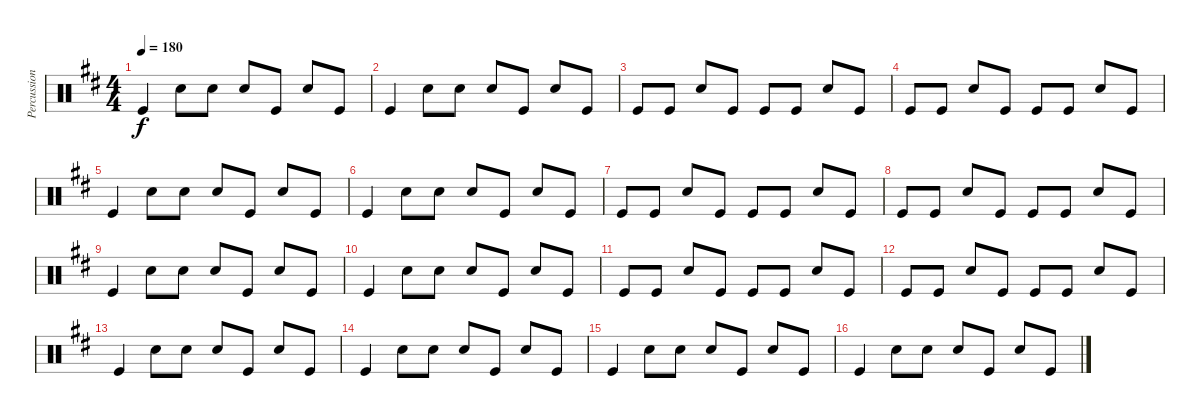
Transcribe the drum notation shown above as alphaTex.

\track ("Percussion" "Percussion") {instrument percussion}
\staff {score}
\articulation defaults
\ts (4 4)
\tempo 180
\clef neutral
\ks d "Kick (hit)".4{dy f} "Snare (hit) 2".8 "Snare (hit) 2".8 "Snare (hit) 2".8 "Kick (hit)".8 "Snare (hit) 2".8 "Kick (hit)".8
|
"Kick (hit)".4 "Snare (hit) 2".8 "Snare (hit) 2".8 "Snare (hit) 2".8 "Kick (hit)".8 "Snare (hit) 2".8 "Kick (hit)".8 |
"Kick (hit)".8 "Kick (hit)".8 "Snare (hit) 2".8 "Kick (hit)".8 "Kick (hit)".8 "Kick (hit)".8 "Snare (hit) 2".8 "Kick (hit)".8 |
"Kick (hit)".8 "Kick (hit)".8 "Snare (hit) 2".8 "Kick (hit)".8 "Kick (hit)".8 "Kick (hit)".8 "Snare (hit) 2".8 "Kick (hit)".8 |
"Kick (hit)".4 "Snare (hit) 2".8 "Snare (hit) 2".8 "Snare (hit) 2".8 "Kick (hit)".8 "Snare (hit) 2".8 "Kick (hit)".8 |
"Kick (hit)".4 "Snare (hit) 2".8 "Snare (hit) 2".8 "Snare (hit) 2".8 "Kick (hit)".8 "Snare (hit) 2".8 "Kick (hit)".8 |
"Kick (hit)".8 "Kick (hit)".8 "Snare (hit) 2".8 "Kick (hit)".8 "Kick (hit)".8 "Kick (hit)".8 "Snare (hit) 2".8 "Kick (hit)".8 |
"Kick (hit)".8 "Kick (hit)".8 "Snare (hit) 2".8 "Kick (hit)".8 "Kick (hit)".8 "Kick (hit)".8 "Snare (hit) 2".8 "Kick (hit)".8 |
"Kick (hit)".4 "Snare (hit) 2".8 "Snare (hit) 2".8 "Snare (hit) 2".8 "Kick (hit)".8 "Snare (hit) 2".8 "Kick (hit)".8 |
"Kick (hit)".4 "Snare (hit) 2".8 "Snare (hit) 2".8 "Snare (hit) 2".8 "Kick (hit)".8 "Snare (hit) 2".8 "Kick (hit)".8 |
"Kick (hit)".8 "Kick (hit)".8 "Snare (hit) 2".8 "Kick (hit)".8 "Kick (hit)".8 "Kick (hit)".8 "Snare (hit) 2".8 "Kick (hit)".8 |
"Kick (hit)".8 "Kick (hit)".8 "Snare (hit) 2".8 "Kick (hit)".8 "Kick (hit)".8 "Kick (hit)".8 "Snare (hit) 2".8 "Kick (hit)".8 |
"Kick (hit)".4 "Snare (hit) 2".8 "Snare (hit) 2".8 "Snare (hit) 2".8 "Kick (hit)".8 "Snare (hit) 2".8 "Kick (hit)".8 |
"Kick (hit)".4 "Snare (hit) 2".8 "Snare (hit) 2".8 "Snare (hit) 2".8 "Kick (hit)".8 "Snare (hit) 2".8 "Kick (hit)".8 |
"Kick (hit)".4 "Snare (hit) 2".8 "Snare (hit) 2".8 "Snare (hit) 2".8 "Kick (hit)".8 "Snare (hit) 2".8 "Kick (hit)".8 |
"Kick (hit)".4 "Snare (hit) 2".8 "Snare (hit) 2".8 "Snare (hit) 2".8 "Kick (hit)".8 "Snare (hit) 2".8 "Kick (hit)".8
